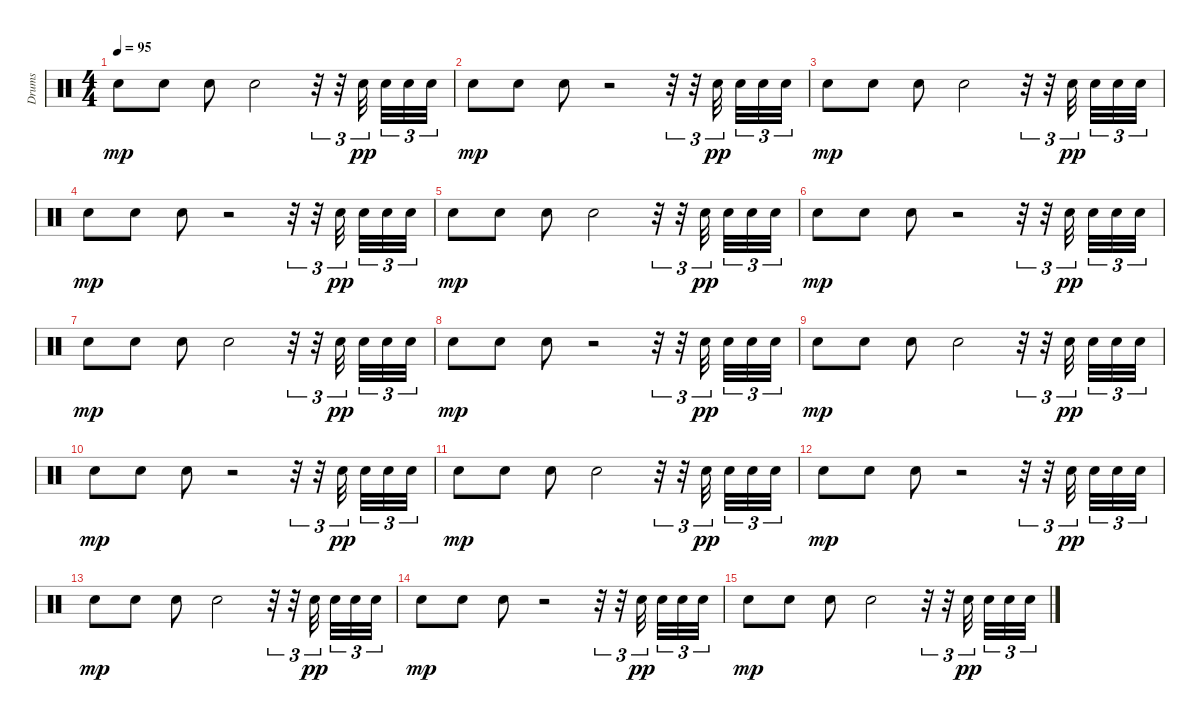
\track ("Drums" "Drums") {instrument percussion}
\staff {score}
\articulation defaults
\ts (4 4)
\tempo 95
\clef neutral
\ks c "Electric Snare (hit)".8{dy mp} "Electric Snare (hit)".8 "Electric Snare (hit)".8 "Electric Snare (hit)".2
r.32{tu (3 2)} r.32{tu (3 2)} "Electric Snare (hit)".32{tu (3 2) dy pp} "Electric Snare (hit)".32{tu (3 2)} "Electric Snare (hit)".32{tu (3 2)} "Electric Snare (hit)".32{tu (3 2)} |
"Electric Snare (hit)".8{dy mp} "Electric Snare (hit)".8 "Electric Snare (hit)".8 r.2 r.32{tu (3 2)} r.32{tu (3 2)} "Electric Snare (hit)".32{tu (3 2) dy pp} "Electric Snare (hit)".32{tu (3 2)} "Electric Snare (hit)".32{tu (3 2)} "Electric Snare (hit)".32{tu (3 2)} |
"Electric Snare (hit)".8{dy mp} "Electric Snare (hit)".8 "Electric Snare (hit)".8 "Electric Snare (hit)".2 r.32{tu (3 2)} r.32{tu (3 2)} "Electric Snare (hit)".32{tu (3 2) dy pp} "Electric Snare (hit)".32{tu (3 2)} "Electric Snare (hit)".32{tu (3 2)} "Electric Snare (hit)".32{tu (3 2)} |
"Electric Snare (hit)".8{dy mp} "Electric Snare (hit)".8 "Electric Snare (hit)".8 r.2 r.32{tu (3 2)} r.32{tu (3 2)} "Electric Snare (hit)".32{tu (3 2) dy pp} "Electric Snare (hit)".32{tu (3 2)} "Electric Snare (hit)".32{tu (3 2)} "Electric Snare (hit)".32{tu (3 2)} |
"Electric Snare (hit)".8{dy mp} "Electric Snare (hit)".8 "Electric Snare (hit)".8 "Electric Snare (hit)".2 r.32{tu (3 2)} r.32{tu (3 2)} "Electric Snare (hit)".32{tu (3 2) dy pp} "Electric Snare (hit)".32{tu (3 2)} "Electric Snare (hit)".32{tu (3 2)} "Electric Snare (hit)".32{tu (3 2)} |
"Electric Snare (hit)".8{dy mp} "Electric Snare (hit)".8 "Electric Snare (hit)".8 r.2 r.32{tu (3 2)} r.32{tu (3 2)} "Electric Snare (hit)".32{tu (3 2) dy pp} "Electric Snare (hit)".32{tu (3 2)} "Electric Snare (hit)".32{tu (3 2)} "Electric Snare (hit)".32{tu (3 2)} |
"Electric Snare (hit)".8{dy mp} "Electric Snare (hit)".8 "Electric Snare (hit)".8 "Electric Snare (hit)".2 r.32{tu (3 2)} r.32{tu (3 2)} "Electric Snare (hit)".32{tu (3 2) dy pp} "Electric Snare (hit)".32{tu (3 2)} "Electric Snare (hit)".32{tu (3 2)} "Electric Snare (hit)".32{tu (3 2)} |
"Electric Snare (hit)".8{dy mp} "Electric Snare (hit)".8 "Electric Snare (hit)".8 r.2 r.32{tu (3 2)} r.32{tu (3 2)} "Electric Snare (hit)".32{tu (3 2) dy pp} "Electric Snare (hit)".32{tu (3 2)} "Electric Snare (hit)".32{tu (3 2)} "Electric Snare (hit)".32{tu (3 2)} |
"Electric Snare (hit)".8{dy mp volume 0} "Electric Snare (hit)".8 "Electric Snare (hit)".8 "Electric Snare (hit)".2 r.32{tu (3 2)} r.32{tu (3 2)} "Electric Snare (hit)".32{tu (3 2) dy pp} "Electric Snare (hit)".32{tu (3 2)} "Electric Snare (hit)".32{tu (3 2)} "Electric Snare (hit)".32{tu (3 2)} |
"Electric Snare (hit)".8{dy mp} "Electric Snare (hit)".8 "Electric Snare (hit)".8 r.2 r.32{tu (3 2)} r.32{tu (3 2)} "Electric Snare (hit)".32{tu (3 2) dy pp} "Electric Snare (hit)".32{tu (3 2)} "Electric Snare (hit)".32{tu (3 2)} "Electric Snare (hit)".32{tu (3 2)} |
"Electric Snare (hit)".8{dy mp} "Electric Snare (hit)".8 "Electric Snare (hit)".8 "Electric Snare (hit)".2 r.32{tu (3 2)} r.32{tu (3 2)} "Electric Snare (hit)".32{tu (3 2) dy pp} "Electric Snare (hit)".32{tu (3 2)} "Electric Snare (hit)".32{tu (3 2)} "Electric Snare (hit)".32{tu (3 2)} |
"Electric Snare (hit)".8{dy mp} "Electric Snare (hit)".8 "Electric Snare (hit)".8 r.2 r.32{tu (3 2)} r.32{tu (3 2)} "Electric Snare (hit)".32{tu (3 2) dy pp} "Electric Snare (hit)".32{tu (3 2)} "Electric Snare (hit)".32{tu (3 2)} "Electric Snare (hit)".32{tu (3 2)} |
"Electric Snare (hit)".8{dy mp} "Electric Snare (hit)".8 "Electric Snare (hit)".8 "Electric Snare (hit)".2 r.32{tu (3 2)} r.32{tu (3 2)} "Electric Snare (hit)".32{tu (3 2) dy pp} "Electric Snare (hit)".32{tu (3 2)} "Electric Snare (hit)".32{tu (3 2)} "Electric Snare (hit)".32{tu (3 2)} |
"Electric Snare (hit)".8{dy mp} "Electric Snare (hit)".8 "Electric Snare (hit)".8 r.2 r.32{tu (3 2)} r.32{tu (3 2)} "Electric Snare (hit)".32{tu (3 2) dy pp} "Electric Snare (hit)".32{tu (3 2)} "Electric Snare (hit)".32{tu (3 2)} "Electric Snare (hit)".32{tu (3 2)} |
"Electric Snare (hit)".8{dy mp} "Electric Snare (hit)".8 "Electric Snare (hit)".8 "Electric Snare (hit)".2 r.32{tu (3 2)} r.32{tu (3 2)} "Electric Snare (hit)".32{tu (3 2) dy pp} "Electric Snare (hit)".32{tu (3 2)} "Electric Snare (hit)".32{tu (3 2)} "Electric Snare (hit)".32{tu (3 2)}
